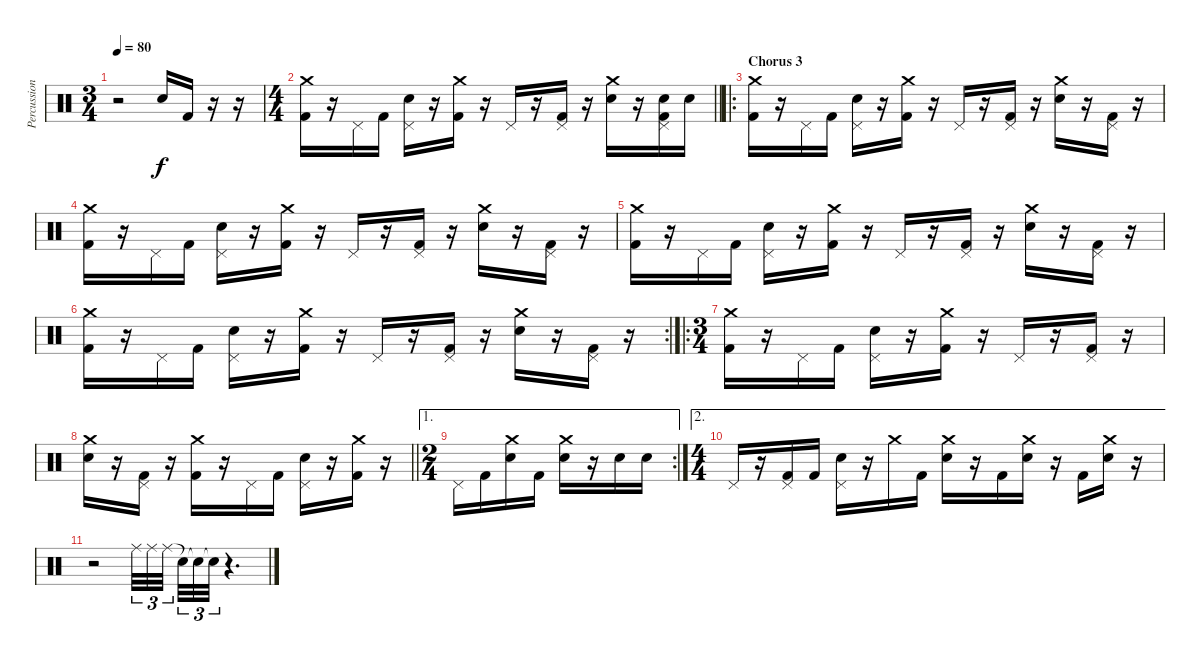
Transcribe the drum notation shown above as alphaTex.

\track ("Percussion (N. Sanderson)" "Percussion") {instrument percussion}
\staff {score}
\articulation defaults
\ts (3 4)
\tempo 80
\clef neutral
\ks c
r.2{dy f} "Electric Snare (hit)".16 "Kick (hit) 2".16 r.16 r.16 |
\ts (4 4)
\barLineRight lightlight
("Crash medium (hit)" "Kick (hit) 2").16 r.16 "Pedal Hi-Hat (hit)".16 "Kick (hit) 2".16 ("Pedal Hi-Hat (hit)" "Electric Snare (hit)").16 r.16 ("Crash medium (hit)" "Kick (hit) 2").16 r.16 "Pedal Hi-Hat (hit)".16 r.16 ("Pedal Hi-Hat (hit)" "Kick (hit) 2").16 r.16 ("Crash medium (hit)" "Electric Snare (hit)").16 r.16 ("Pedal Hi-Hat (hit)" "Electric Snare (hit)" "Kick (hit) 2").16 "Electric Snare (hit)".16 |
\ro
\section ("" "Chorus 3")
("Crash medium (hit)" "Kick (hit) 2").16 r.16 "Pedal Hi-Hat (hit)".16 "Kick (hit) 2".16 ("Pedal Hi-Hat (hit)" "Electric Snare (hit)").16 r.16 ("Crash medium (hit)" "Kick (hit) 2").16 r.16 "Pedal Hi-Hat (hit)".16 r.16 ("Pedal Hi-Hat (hit)" "Kick (hit) 2").16 r.16 ("Crash medium (hit)" "Electric Snare (hit)").16 r.16 ("Pedal Hi-Hat (hit)" "Kick (hit) 2").16 r.16 |
("Crash medium (hit)" "Kick (hit) 2").16 r.16 "Pedal Hi-Hat (hit)".16 "Kick (hit) 2".16 ("Pedal Hi-Hat (hit)" "Electric Snare (hit)").16 r.16 ("Crash medium (hit)" "Kick (hit) 2").16 r.16 "Pedal Hi-Hat (hit)".16 r.16 ("Pedal Hi-Hat (hit)" "Kick (hit) 2").16 r.16 ("Crash medium (hit)" "Electric Snare (hit)").16 r.16 ("Pedal Hi-Hat (hit)" "Kick (hit) 2").16 r.16 |
("Crash medium (hit)" "Kick (hit) 2").16 r.16 "Pedal Hi-Hat (hit)".16 "Kick (hit) 2".16 ("Pedal Hi-Hat (hit)" "Electric Snare (hit)").16 r.16 ("Crash medium (hit)" "Kick (hit) 2").16 r.16 "Pedal Hi-Hat (hit)".16 r.16 ("Pedal Hi-Hat (hit)" "Kick (hit) 2").16 r.16 ("Crash medium (hit)" "Electric Snare (hit)").16 r.16 ("Pedal Hi-Hat (hit)" "Kick (hit) 2").16 r.16 |
\rc 2
("Crash medium (hit)" "Kick (hit) 2").16 r.16 "Pedal Hi-Hat (hit)".16 "Kick (hit) 2".16 ("Pedal Hi-Hat (hit)" "Electric Snare (hit)").16 r.16 ("Crash medium (hit)" "Kick (hit) 2").16 r.16 "Pedal Hi-Hat (hit)".16 r.16 ("Pedal Hi-Hat (hit)" "Kick (hit) 2").16 r.16 ("Crash medium (hit)" "Electric Snare (hit)").16 r.16 ("Pedal Hi-Hat (hit)" "Kick (hit) 2").16 r.16 |
\ro
\ts (3 4)
("Crash medium (hit)" "Kick (hit) 2").16 r.16 "Pedal Hi-Hat (hit)".16 "Kick (hit) 2".16 ("Pedal Hi-Hat (hit)" "Electric Snare (hit)").16 r.16 ("Crash medium (hit)" "Kick (hit) 2").16 r.16 "Pedal Hi-Hat (hit)".16 r.16 ("Pedal Hi-Hat (hit)" "Kick (hit) 2").16 r.16 |
\barLineRight lightlight
("Crash medium (hit)" "Electric Snare (hit)").16 r.16 ("Pedal Hi-Hat (hit)" "Kick (hit) 2").16 r.16 ("Crash medium (hit)" "Kick (hit) 2").16 r.16 "Pedal Hi-Hat (hit)".16 "Kick (hit) 2".16 ("Pedal Hi-Hat (hit)" "Electric Snare (hit)").16 r.16 ("Crash medium (hit)" "Kick (hit) 2").16 r.16 |
\ae 1
\rc 2
\ts (2 4)
"Pedal Hi-Hat (hit)".16 "Kick (hit) 2".16 ("Crash medium (hit)" "Electric Snare (hit)").16 "Kick (hit) 2".16 ("Crash medium (hit)" "Electric Snare (hit)").16 r.16 "Electric Snare (hit)".16 "Electric Snare (hit)".16 |
\ae 2
\ts (4 4)
"Pedal Hi-Hat (hit)".16 r.16 ("Pedal Hi-Hat (hit)" "Kick (hit) 2").16 "Kick (hit) 2".16 ("Pedal Hi-Hat (hit)" "Electric Snare (hit)").16 r.16 "Crash medium (hit)".16 "Kick (hit) 2".16 ("Crash medium (hit)" "Electric Snare (hit)").16 r.16 "Kick (hit) 2".16 ("Crash medium (hit)" "Electric Snare (hit)").16 r.16 "Kick (hit) 2".16 ("Crash medium (hit)" "Electric Snare (hit)").16 r.16 |
r.2 "Ride (middle)".32{tu (3 2)} "Ride (middle)".32{tu (3 2)} "Ride (middle)".32{tu (3 2) beam splitsecondary} "Snare (hit)"{t}.32{tu (3 2)} "Snare (hit)"{t}.32{tu (3 2)} "Snare (hit)"{t}.32{tu (3 2)} r.4{d}
